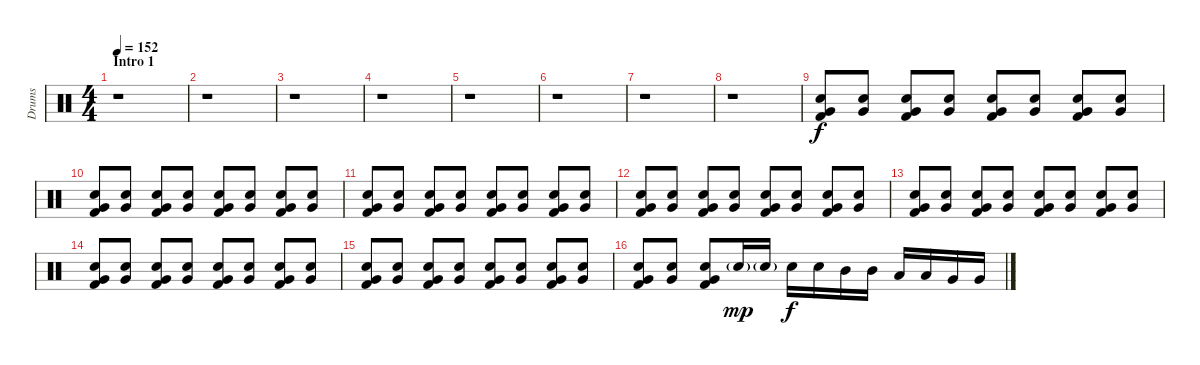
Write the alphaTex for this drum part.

\track ("Drums" "Drums") {instrument percussion}
\staff {score}
\articulation defaults
\ts (4 4)
\section ("" "Intro 1")
\tempo 152
\clef neutral
\ks c
r.1{dy f} |
r.1 |
r.1 |
r.1 |
r.1 |
r.1 |
r.1 |
r.1{volume 0} |
("Very Low Tom (hit)" "Snare (hit) 2" "Kick (hit) 2").8{volume 4} ("Very Low Tom (hit)" "Snare (hit) 2").8 ("Very Low Tom (hit)" "Snare (hit) 2" "Kick (hit) 2").8 ("Very Low Tom (hit)" "Snare (hit) 2").8 ("Very Low Tom (hit)" "Snare (hit) 2" "Kick (hit) 2").8 ("Very Low Tom (hit)" "Snare (hit) 2").8 ("Very Low Tom (hit)" "Snare (hit) 2" "Kick (hit) 2").8 ("Very Low Tom (hit)" "Snare (hit) 2").8 |
("Very Low Tom (hit)" "Snare (hit) 2" "Kick (hit) 2").8{volume 6} ("Very Low Tom (hit)" "Snare (hit) 2").8 ("Very Low Tom (hit)" "Snare (hit) 2" "Kick (hit) 2").8 ("Very Low Tom (hit)" "Snare (hit) 2").8 ("Very Low Tom (hit)" "Snare (hit) 2" "Kick (hit) 2").8 ("Very Low Tom (hit)" "Snare (hit) 2").8 ("Very Low Tom (hit)" "Snare (hit) 2" "Kick (hit) 2").8 ("Very Low Tom (hit)" "Snare (hit) 2").8 |
("Very Low Tom (hit)" "Snare (hit) 2" "Kick (hit) 2").8{volume 12} ("Very Low Tom (hit)" "Snare (hit) 2").8 ("Very Low Tom (hit)" "Snare (hit) 2" "Kick (hit) 2").8 ("Very Low Tom (hit)" "Snare (hit) 2").8 ("Very Low Tom (hit)" "Snare (hit) 2" "Kick (hit) 2").8 ("Very Low Tom (hit)" "Snare (hit) 2").8 ("Very Low Tom (hit)" "Snare (hit) 2" "Kick (hit) 2").8 ("Very Low Tom (hit)" "Snare (hit) 2").8 |
("Very Low Tom (hit)" "Snare (hit) 2" "Kick (hit) 2").8 ("Very Low Tom (hit)" "Snare (hit) 2").8 ("Very Low Tom (hit)" "Snare (hit) 2" "Kick (hit) 2").8 ("Very Low Tom (hit)" "Snare (hit) 2").8 ("Very Low Tom (hit)" "Snare (hit) 2" "Kick (hit) 2").8 ("Very Low Tom (hit)" "Snare (hit) 2").8 ("Very Low Tom (hit)" "Snare (hit) 2" "Kick (hit) 2").8 ("Very Low Tom (hit)" "Snare (hit) 2").8 |
("Very Low Tom (hit)" "Snare (hit) 2" "Kick (hit) 2").8 ("Very Low Tom (hit)" "Snare (hit) 2").8 ("Very Low Tom (hit)" "Snare (hit) 2" "Kick (hit) 2").8 ("Very Low Tom (hit)" "Snare (hit) 2").8 ("Very Low Tom (hit)" "Snare (hit) 2" "Kick (hit) 2").8 ("Very Low Tom (hit)" "Snare (hit) 2").8 ("Very Low Tom (hit)" "Snare (hit) 2" "Kick (hit) 2").8 ("Very Low Tom (hit)" "Snare (hit) 2").8 |
("Very Low Tom (hit)" "Snare (hit) 2" "Kick (hit) 2").8 ("Very Low Tom (hit)" "Snare (hit) 2").8 ("Very Low Tom (hit)" "Snare (hit) 2" "Kick (hit) 2").8 ("Very Low Tom (hit)" "Snare (hit) 2").8 ("Very Low Tom (hit)" "Snare (hit) 2" "Kick (hit) 2").8 ("Very Low Tom (hit)" "Snare (hit) 2").8 ("Very Low Tom (hit)" "Snare (hit) 2" "Kick (hit) 2").8 ("Very Low Tom (hit)" "Snare (hit) 2").8 |
("Very Low Tom (hit)" "Snare (hit) 2" "Kick (hit) 2").8{volume 14} ("Very Low Tom (hit)" "Snare (hit) 2").8 ("Very Low Tom (hit)" "Snare (hit) 2" "Kick (hit) 2").8 ("Very Low Tom (hit)" "Snare (hit) 2").8 ("Very Low Tom (hit)" "Snare (hit) 2" "Kick (hit) 2").8 ("Very Low Tom (hit)" "Snare (hit) 2").8 ("Very Low Tom (hit)" "Snare (hit) 2" "Kick (hit) 2").8 ("Very Low Tom (hit)" "Snare (hit) 2").8 |
("Very Low Tom (hit)" "Snare (hit) 2" "Kick (hit) 2").8 ("Very Low Tom (hit)" "Snare (hit) 2").8 ("Very Low Tom (hit)" "Snare (hit) 2" "Kick (hit) 2").8 "Snare (hit) 2"{g}.16{dy mp} "Snare (hit) 2"{g}.16 "Snare (hit) 2".16{dy f} "Snare (hit) 2".16 "Mid Tom (hit)".16 "Mid Tom (hit)".16 "Low Tom (hit)".16 "Low Tom (hit)".16 "Very Low Tom (hit)".16 "Very Low Tom (hit)".16
